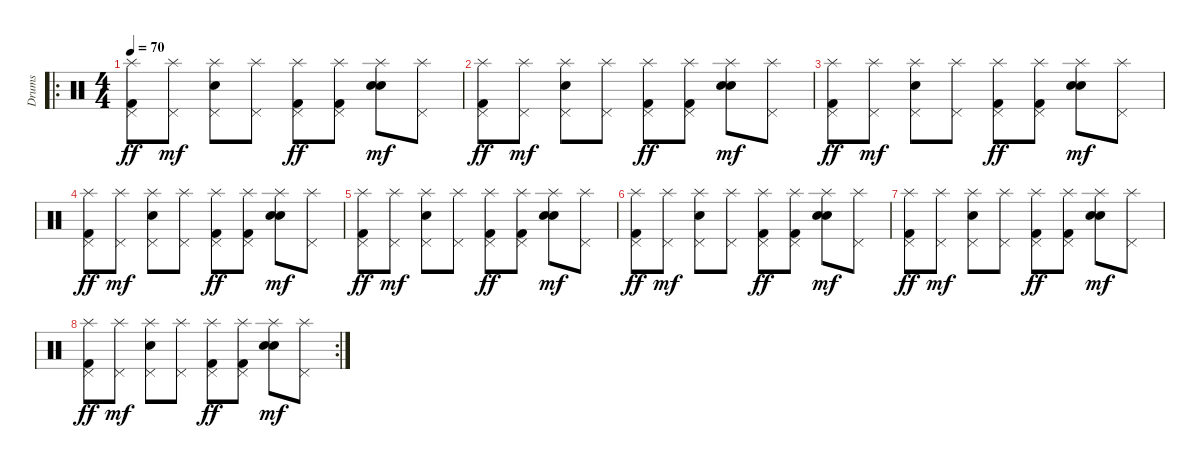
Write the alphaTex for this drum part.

\track ("Drums" "Drums") {instrument percussion}
\staff {score}
\articulation defaults
\ro
\ts (4 4)
\tempo 70
\clef neutral
\ks c
("Splash (hit)" "Pedal Hi-Hat (hit)" "Kick (hit) 2").8{dy ff} ("Splash (hit)" "Pedal Hi-Hat (hit)").8{dy mf} ("Splash (hit)" "Pedal Hi-Hat (hit)" "Snare (hit) 2").8 ("Splash (hit)" "Pedal Hi-Hat (hit)").8 ("Splash (hit)" "Pedal Hi-Hat (hit)" "Kick (hit) 2").8{dy ff} ("Splash (hit)" "Pedal Hi-Hat (hit)" "Kick (hit) 2").8 ("Splash (hit)" "Electric Snare (hit)" "Snare (hit) 2").8{dy mf} ("Splash (hit)" "Pedal Hi-Hat (hit)").8 |
("Splash (hit)" "Pedal Hi-Hat (hit)" "Kick (hit) 2").8{dy ff} ("Splash (hit)" "Pedal Hi-Hat (hit)").8{dy mf} ("Splash (hit)" "Pedal Hi-Hat (hit)" "Snare (hit) 2").8 ("Splash (hit)" "Pedal Hi-Hat (hit)").8 ("Splash (hit)" "Pedal Hi-Hat (hit)" "Kick (hit) 2").8{dy ff} ("Splash (hit)" "Pedal Hi-Hat (hit)" "Kick (hit) 2").8 ("Splash (hit)" "Electric Snare (hit)" "Snare (hit) 2").8{dy mf} ("Splash (hit)" "Pedal Hi-Hat (hit)").8 |
("Splash (hit)" "Pedal Hi-Hat (hit)" "Kick (hit) 2").8{dy ff} ("Splash (hit)" "Pedal Hi-Hat (hit)").8{dy mf} ("Splash (hit)" "Pedal Hi-Hat (hit)" "Snare (hit) 2").8 ("Splash (hit)" "Pedal Hi-Hat (hit)").8 ("Splash (hit)" "Pedal Hi-Hat (hit)" "Kick (hit) 2").8{dy ff} ("Splash (hit)" "Pedal Hi-Hat (hit)" "Kick (hit) 2").8 ("Splash (hit)" "Electric Snare (hit)" "Snare (hit) 2").8{dy mf} ("Splash (hit)" "Pedal Hi-Hat (hit)").8 |
("Splash (hit)" "Pedal Hi-Hat (hit)" "Kick (hit) 2").8{dy ff} ("Splash (hit)" "Pedal Hi-Hat (hit)").8{dy mf} ("Splash (hit)" "Pedal Hi-Hat (hit)" "Snare (hit) 2").8 ("Splash (hit)" "Pedal Hi-Hat (hit)").8 ("Splash (hit)" "Pedal Hi-Hat (hit)" "Kick (hit) 2").8{dy ff} ("Splash (hit)" "Pedal Hi-Hat (hit)" "Kick (hit) 2").8 ("Splash (hit)" "Electric Snare (hit)" "Snare (hit) 2").8{dy mf} ("Splash (hit)" "Pedal Hi-Hat (hit)").8 |
("Splash (hit)" "Pedal Hi-Hat (hit)" "Kick (hit) 2").8{dy ff} ("Splash (hit)" "Pedal Hi-Hat (hit)").8{dy mf} ("Splash (hit)" "Pedal Hi-Hat (hit)" "Snare (hit) 2").8 ("Splash (hit)" "Pedal Hi-Hat (hit)").8 ("Splash (hit)" "Pedal Hi-Hat (hit)" "Kick (hit) 2").8{dy ff} ("Splash (hit)" "Pedal Hi-Hat (hit)" "Kick (hit) 2").8 ("Splash (hit)" "Electric Snare (hit)" "Snare (hit) 2").8{dy mf} ("Splash (hit)" "Pedal Hi-Hat (hit)").8 |
("Splash (hit)" "Pedal Hi-Hat (hit)" "Kick (hit) 2").8{dy ff} ("Splash (hit)" "Pedal Hi-Hat (hit)").8{dy mf} ("Splash (hit)" "Pedal Hi-Hat (hit)" "Snare (hit) 2").8 ("Splash (hit)" "Pedal Hi-Hat (hit)").8 ("Splash (hit)" "Pedal Hi-Hat (hit)" "Kick (hit) 2").8{dy ff} ("Splash (hit)" "Pedal Hi-Hat (hit)" "Kick (hit) 2").8 ("Splash (hit)" "Electric Snare (hit)" "Snare (hit) 2").8{dy mf} ("Splash (hit)" "Pedal Hi-Hat (hit)").8 |
("Splash (hit)" "Pedal Hi-Hat (hit)" "Kick (hit) 2").8{dy ff} ("Splash (hit)" "Pedal Hi-Hat (hit)").8{dy mf} ("Splash (hit)" "Pedal Hi-Hat (hit)" "Snare (hit) 2").8 ("Splash (hit)" "Pedal Hi-Hat (hit)").8 ("Splash (hit)" "Pedal Hi-Hat (hit)" "Kick (hit) 2").8{dy ff} ("Splash (hit)" "Pedal Hi-Hat (hit)" "Kick (hit) 2").8 ("Splash (hit)" "Electric Snare (hit)" "Snare (hit) 2").8{dy mf} ("Splash (hit)" "Pedal Hi-Hat (hit)").8 |
\rc 2
("Splash (hit)" "Pedal Hi-Hat (hit)" "Kick (hit) 2").8{dy ff} ("Splash (hit)" "Pedal Hi-Hat (hit)").8{dy mf} ("Splash (hit)" "Pedal Hi-Hat (hit)" "Snare (hit) 2").8 ("Splash (hit)" "Pedal Hi-Hat (hit)").8 ("Splash (hit)" "Pedal Hi-Hat (hit)" "Kick (hit) 2").8{dy ff} ("Splash (hit)" "Pedal Hi-Hat (hit)" "Kick (hit) 2").8 ("Splash (hit)" "Electric Snare (hit)" "Snare (hit) 2").8{dy mf} ("Splash (hit)" "Pedal Hi-Hat (hit)").8
